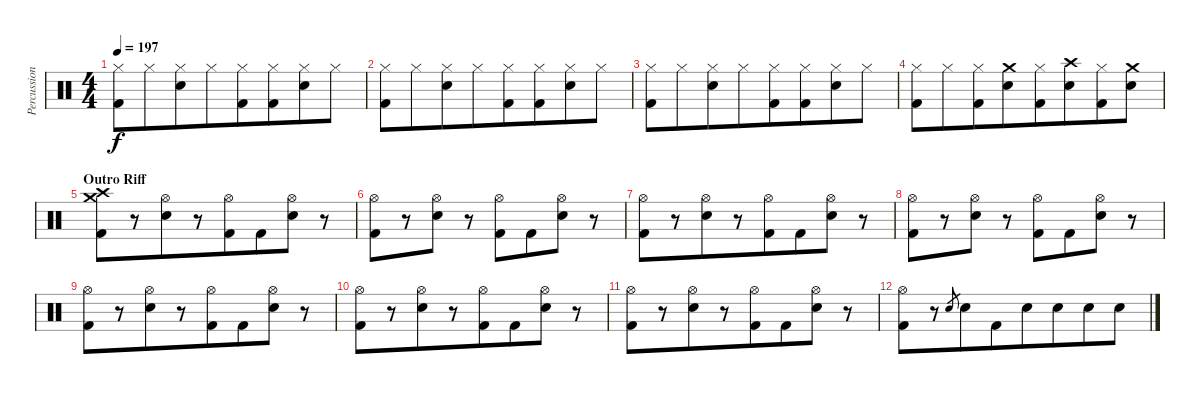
\track ("Percussion" "Percussion") {instrument percussion}
\staff {score}
\articulation defaults
\ts (4 4)
\tempo 197
\clef neutral
\ks c
("Hi-Hat (closed)" "Kick (hit) 2").8{dy f beam merge} "Hi-Hat (closed)".8{beam merge} ("Hi-Hat (closed)" "Electric Snare (hit)").8{beam merge} "Hi-Hat (closed)".8{beam merge} ("Hi-Hat (closed)" "Kick (hit) 2").8{beam merge} ("Hi-Hat (closed)" "Kick (hit) 2").8{beam merge} ("Hi-Hat (closed)" "Electric Snare (hit)").8 "Hi-Hat (closed)".8 |
("Hi-Hat (closed)" "Kick (hit) 2").8{beam merge} "Hi-Hat (closed)".8{beam merge} ("Hi-Hat (closed)" "Electric Snare (hit)").8{beam merge} "Hi-Hat (closed)".8{beam merge} ("Hi-Hat (closed)" "Kick (hit) 2").8{beam merge} ("Hi-Hat (closed)" "Kick (hit) 2").8{beam merge} ("Hi-Hat (closed)" "Electric Snare (hit)").8{beam merge} "Hi-Hat (closed)".8 |
("Hi-Hat (closed)" "Kick (hit) 2").8{beam merge} "Hi-Hat (closed)".8{beam merge} ("Hi-Hat (closed)" "Electric Snare (hit)").8{beam merge} "Hi-Hat (closed)".8{beam merge} ("Hi-Hat (closed)" "Kick (hit) 2").8{beam merge} ("Hi-Hat (closed)" "Kick (hit) 2").8{beam merge} ("Hi-Hat (closed)" "Electric Snare (hit)").8{beam merge} "Hi-Hat (closed)".8 |
("Hi-Hat (closed)" "Kick (hit) 2").8{beam merge} "Hi-Hat (closed)".8{beam merge} ("Hi-Hat (closed)" "Kick (hit) 2").8{beam merge} ("Crash medium (hit)" "Electric Snare (hit)").8{beam merge} ("Hi-Hat (closed)" "Kick (hit) 2").8{beam merge} ("Crash high (hit)" "Electric Snare (hit)").8{beam merge} ("Hi-Hat (closed)" "Kick (hit) 2").8{beam merge} ("Crash medium (hit)" "Electric Snare (hit)").8 |
\section ("" "Outro Riff")
("Crash medium (hit)" "Crash high (hit)" "Kick (hit) 2").8{beam merge} r.8{beam merge} ("Hi-Hat (open)" "Electric Snare (hit)").8{beam merge} r.8{beam merge} ("Hi-Hat (open)" "Kick (hit) 2").8{beam merge} "Kick (hit) 2".8{beam merge} ("Hi-Hat (open)" "Electric Snare (hit)").8{beam merge} r.8 |
("Hi-Hat (open)" "Kick (hit) 2").8{beam merge} r.8 ("Hi-Hat (open)" "Electric Snare (hit)").8 r.8 ("Hi-Hat (open)" "Kick (hit) 2").8{beam merge} "Kick (hit) 2".8{beam merge} ("Hi-Hat (open)" "Electric Snare (hit)").8{beam merge} r.8 |
("Hi-Hat (open)" "Kick (hit) 2").8{beam merge} r.8{beam merge} ("Hi-Hat (open)" "Electric Snare (hit)").8{beam merge} r.8{beam merge} ("Hi-Hat (open)" "Kick (hit) 2").8{beam merge} "Kick (hit) 2".8{beam merge} ("Hi-Hat (open)" "Electric Snare (hit)").8 r.8 |
("Hi-Hat (open)" "Kick (hit) 2").8{beam merge} r.8{beam merge} ("Hi-Hat (open)" "Electric Snare (hit)").8 r.8 ("Hi-Hat (open)" "Kick (hit) 2").8{beam merge} "Kick (hit) 2".8{beam merge} ("Hi-Hat (open)" "Electric Snare (hit)").8{beam merge} r.8 |
("Hi-Hat (open)" "Kick (hit) 2").8{beam merge} r.8{beam merge} ("Hi-Hat (open)" "Electric Snare (hit)").8{beam merge} r.8{beam merge} ("Hi-Hat (open)" "Kick (hit) 2").8{beam merge} "Kick (hit) 2".8{beam merge} ("Hi-Hat (open)" "Electric Snare (hit)").8{beam merge} r.8 |
("Hi-Hat (open)" "Kick (hit) 2").8{beam merge} r.8{beam merge} ("Hi-Hat (open)" "Electric Snare (hit)").8{beam merge} r.8{beam merge} ("Hi-Hat (open)" "Kick (hit) 2").8 "Kick (hit) 2".8{beam merge} ("Hi-Hat (open)" "Electric Snare (hit)").8{beam merge} r.8 |
("Hi-Hat (open)" "Kick (hit) 2").8{beam merge} r.8{beam merge} ("Hi-Hat (open)" "Electric Snare (hit)").8{beam merge} r.8{beam merge} ("Hi-Hat (open)" "Kick (hit) 2").8{beam merge} "Kick (hit) 2".8{beam merge} ("Hi-Hat (open)" "Electric Snare (hit)").8{beam merge} r.8 |
("Hi-Hat (open)" "Kick (hit) 2").8{beam merge} r.8 "Electric Snare (hit)".8{gr} "Electric Snare (hit)".8{beam merge} "Kick (hit) 2".8{beam merge} "Electric Snare (hit)".8{beam merge} "Electric Snare (hit)".8{beam merge} "Electric Snare (hit)".8{beam merge} "Electric Snare (hit)".8
